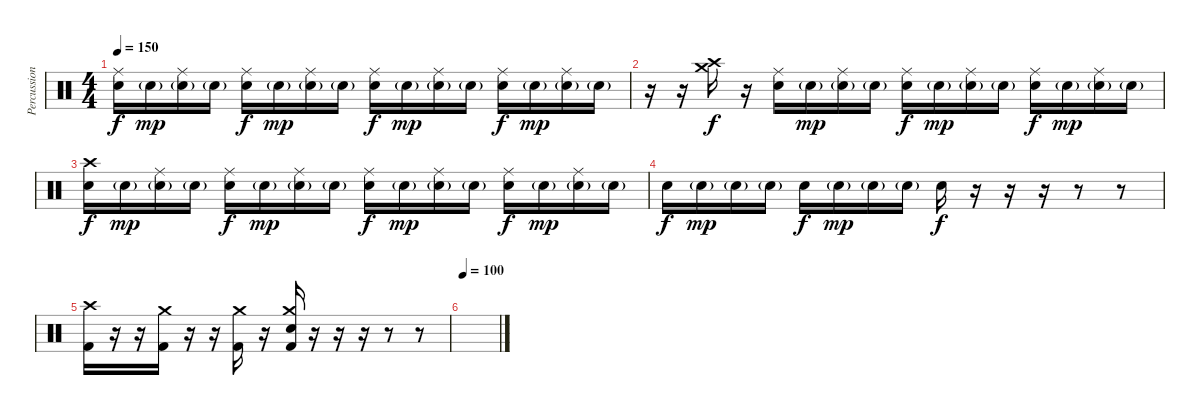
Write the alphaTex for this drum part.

\track ("Percussion" "Percussion") {instrument percussion}
\staff {score}
\articulation defaults
\ts (4 4)
\tempo 150
\clef neutral
\ks c
("Ride (middle)" "Snare (hit) 2").16{dy f} "Snare (hit) 2"{g}.16{dy mp} ("Ride (middle)" "Snare (hit) 2"{g}).16 "Snare (hit) 2"{g}.16 ("Ride (middle)" "Snare (hit) 2").16{dy f} "Snare (hit) 2"{g}.16{dy mp} ("Ride (middle)" "Snare (hit) 2"{g}).16 "Snare (hit) 2"{g}.16 ("Ride (middle)" "Snare (hit) 2").16{dy f} "Snare (hit) 2"{g}.16{dy mp} ("Ride (middle)" "Snare (hit) 2"{g}).16 "Snare (hit) 2"{g}.16 ("Ride (middle)" "Snare (hit) 2").16{dy f} "Snare (hit) 2"{g}.16{dy mp} ("Ride (middle)" "Snare (hit) 2"{g}).16 "Snare (hit) 2"{g}.16 |
r.16 r.16 ("Crash medium (hit)" "Crash high (hit)").16{dy f} r.16 ("Ride (middle)" "Snare (hit) 2").16 "Snare (hit) 2"{g}.16{dy mp} ("Ride (middle)" "Snare (hit) 2"{g}).16 "Snare (hit) 2"{g}.16 ("Ride (middle)" "Snare (hit) 2").16{dy f} "Snare (hit) 2"{g}.16{dy mp} ("Ride (middle)" "Snare (hit) 2"{g}).16 "Snare (hit) 2"{g}.16 ("Ride (middle)" "Snare (hit) 2").16{dy f} "Snare (hit) 2"{g}.16{dy mp} ("Ride (middle)" "Snare (hit) 2"{g}).16 "Snare (hit) 2"{g}.16 |
("Crash high (hit)" "Snare (hit) 2").16{dy f} "Snare (hit) 2"{g}.16{dy mp} ("Ride (middle)" "Snare (hit) 2"{g}).16 "Snare (hit) 2"{g}.16 ("Ride (middle)" "Snare (hit) 2").16{dy f} "Snare (hit) 2"{g}.16{dy mp} ("Ride (middle)" "Snare (hit) 2"{g}).16 "Snare (hit) 2"{g}.16 ("Ride (middle)" "Snare (hit) 2").16{dy f} "Snare (hit) 2"{g}.16{dy mp} ("Ride (middle)" "Snare (hit) 2"{g}).16 "Snare (hit) 2"{g}.16 ("Ride (middle)" "Snare (hit) 2").16{dy f} "Snare (hit) 2"{g}.16{dy mp} ("Ride (middle)" "Snare (hit) 2"{g}).16 "Snare (hit) 2"{g}.16 |
"Snare (hit) 2".16{dy f} "Snare (hit) 2"{g}.16{dy mp} "Snare (hit) 2"{g}.16 "Snare (hit) 2"{g}.16 "Snare (hit) 2".16{dy f} "Snare (hit) 2"{g}.16{dy mp} "Snare (hit) 2"{g}.16 "Snare (hit) 2"{g}.16 "Snare (hit) 2".16{dy f} r.16 r.16 r.16 r.8 r.8 |
("Crash high (hit)" "Kick (hit) 2").16 r.16 r.16 ("Crash medium (hit)" "Kick (hit) 2").16 r.16 r.16 ("Crash medium (hit)" "Kick (hit) 2").16 r.16 ("Crash medium (hit)" "Snare (hit) 2" "Kick (hit) 2").16 r.16 r.16 r.16 r.8 r.8 |
\tempo 100
